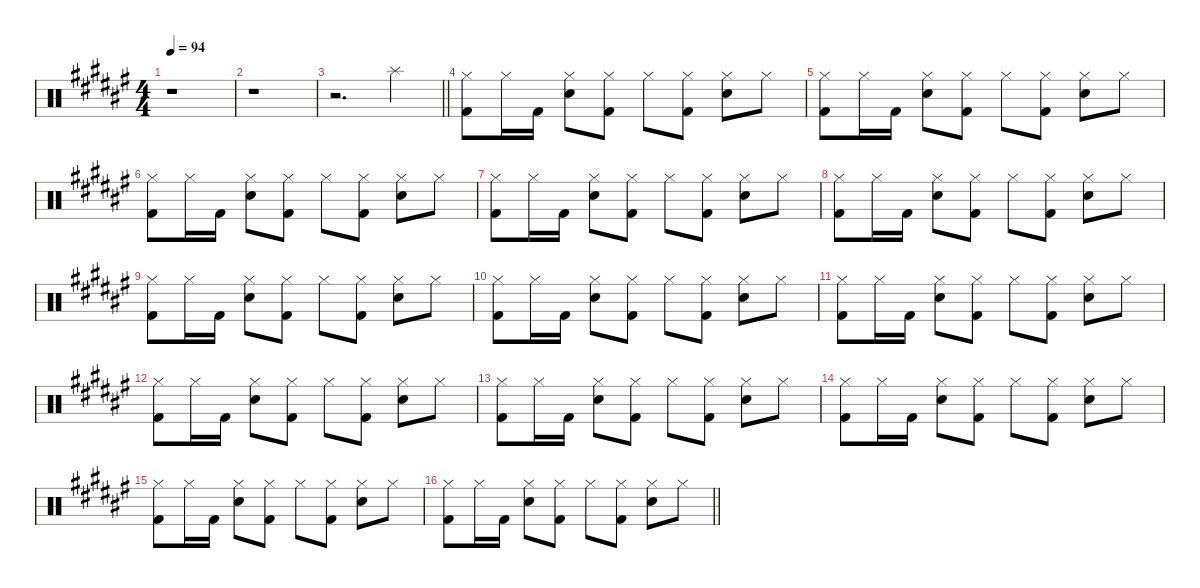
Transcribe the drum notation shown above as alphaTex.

\defaultSystemsLayout 4
\hideDynamics
\bracketExtendMode nobrackets
\singleTrackTrackNamePolicy hidden
\multiTrackTrackNamePolicy hidden
\otherSystemsTrackNameOrientation horizontal
\track ("Mike Joyce" "drm.") {instrument percussion}
\staff {score}
\articulation defaults
\ts (4 4)
\beaming (8 2 2 2 2)
\tempo 94
\clef neutral
\ks f#
r.1{dy p beam Down} |
r.1{beam Down} |
\barLineRight lightlight
r.2{d beam Down} "Splash (hit)"{acc forcenatural}.4{beam Down} |
("Hi-Hat (closed)"{acc forcenatural} "Kick (hit) 2"{acc forcenatural}).8{dy f beam Down} "Hi-Hat (closed)"{acc forcenatural}.16{beam Down} "Kick (hit) 2"{acc forcenatural}.16{beam Down} ("Hi-Hat (closed)"{acc forcenatural} "Snare (hit) 2"{acc forcenatural}).8{beam Down} ("Hi-Hat (closed)"{acc forcenatural} "Kick (hit) 2"{acc forcenatural}).8{beam Down} "Hi-Hat (closed)"{acc forcenatural}.8{beam Down} ("Hi-Hat (closed)"{acc forcenatural} "Kick (hit) 2"{acc forcenatural}).8{beam Down} ("Hi-Hat (closed)"{acc forcenatural} "Snare (hit) 2"{acc forcenatural}).8{beam Down} "Hi-Hat (closed)"{acc forcenatural}.8{beam Down} |
("Hi-Hat (closed)"{acc forcenatural} "Kick (hit) 2"{acc forcenatural}).8{beam Down} "Hi-Hat (closed)"{acc forcenatural}.16{beam Down} "Kick (hit) 2"{acc forcenatural}.16{beam Down} ("Hi-Hat (closed)"{acc forcenatural} "Snare (hit) 2"{acc forcenatural}).8{beam Down} ("Hi-Hat (closed)"{acc forcenatural} "Kick (hit) 2"{acc forcenatural}).8{beam Down} "Hi-Hat (closed)"{acc forcenatural}.8{beam Down} ("Hi-Hat (closed)"{acc forcenatural} "Kick (hit) 2"{acc forcenatural}).8{beam Down} ("Hi-Hat (closed)"{acc forcenatural} "Snare (hit) 2"{acc forcenatural}).8{beam Down} "Hi-Hat (closed)"{acc forcenatural}.8{beam Down} |
("Hi-Hat (closed)"{acc forcenatural} "Kick (hit) 2"{acc forcenatural}).8{beam Down} "Hi-Hat (closed)"{acc forcenatural}.16{beam Down} "Kick (hit) 2"{acc forcenatural}.16{beam Down} ("Hi-Hat (closed)"{acc forcenatural} "Snare (hit) 2"{acc forcenatural}).8{beam Down} ("Hi-Hat (closed)"{acc forcenatural} "Kick (hit) 2"{acc forcenatural}).8{beam Down} "Hi-Hat (closed)"{acc forcenatural}.8{beam Down} ("Hi-Hat (closed)"{acc forcenatural} "Kick (hit) 2"{acc forcenatural}).8{beam Down} ("Hi-Hat (closed)"{acc forcenatural} "Snare (hit) 2"{acc forcenatural}).8{beam Down} "Hi-Hat (closed)"{acc forcenatural}.8{beam Down} |
("Hi-Hat (closed)"{acc forcenatural} "Kick (hit) 2"{acc forcenatural}).8{beam Down} "Hi-Hat (closed)"{acc forcenatural}.16{beam Down} "Kick (hit) 2"{acc forcenatural}.16{beam Down} ("Hi-Hat (closed)"{acc forcenatural} "Snare (hit) 2"{acc forcenatural}).8{beam Down} ("Hi-Hat (closed)"{acc forcenatural} "Kick (hit) 2"{acc forcenatural}).8{beam Down} "Hi-Hat (closed)"{acc forcenatural}.8{beam Down} ("Hi-Hat (closed)"{acc forcenatural} "Kick (hit) 2"{acc forcenatural}).8{beam Down} ("Hi-Hat (closed)"{acc forcenatural} "Snare (hit) 2"{acc forcenatural}).8{beam Down} "Hi-Hat (closed)"{acc forcenatural}.8{beam Down} |
("Hi-Hat (closed)"{acc forcenatural} "Kick (hit) 2"{acc forcenatural}).8{beam Down} "Hi-Hat (closed)"{acc forcenatural}.16{beam Down} "Kick (hit) 2"{acc forcenatural}.16{beam Down} ("Hi-Hat (closed)"{acc forcenatural} "Snare (hit) 2"{acc forcenatural}).8{beam Down} ("Hi-Hat (closed)"{acc forcenatural} "Kick (hit) 2"{acc forcenatural}).8{beam Down} "Hi-Hat (closed)"{acc forcenatural}.8{beam Down} ("Hi-Hat (closed)"{acc forcenatural} "Kick (hit) 2"{acc forcenatural}).8{beam Down} ("Hi-Hat (closed)"{acc forcenatural} "Snare (hit) 2"{acc forcenatural}).8{beam Down} "Hi-Hat (closed)"{acc forcenatural}.8{beam Down} |
("Hi-Hat (closed)"{acc forcenatural} "Kick (hit) 2"{acc forcenatural}).8{beam Down} "Hi-Hat (closed)"{acc forcenatural}.16{beam Down} "Kick (hit) 2"{acc forcenatural}.16{beam Down} ("Hi-Hat (closed)"{acc forcenatural} "Snare (hit) 2"{acc forcenatural}).8{beam Down} ("Hi-Hat (closed)"{acc forcenatural} "Kick (hit) 2"{acc forcenatural}).8{beam Down} "Hi-Hat (closed)"{acc forcenatural}.8{beam Down} ("Hi-Hat (closed)"{acc forcenatural} "Kick (hit) 2"{acc forcenatural}).8{beam Down} ("Hi-Hat (closed)"{acc forcenatural} "Snare (hit) 2"{acc forcenatural}).8{beam Down} "Hi-Hat (closed)"{acc forcenatural}.8{beam Down} |
("Hi-Hat (closed)"{acc forcenatural} "Kick (hit) 2"{acc forcenatural}).8{beam Down} "Hi-Hat (closed)"{acc forcenatural}.16{beam Down} "Kick (hit) 2"{acc forcenatural}.16{beam Down} ("Hi-Hat (closed)"{acc forcenatural} "Snare (hit) 2"{acc forcenatural}).8{beam Down} ("Hi-Hat (closed)"{acc forcenatural} "Kick (hit) 2"{acc forcenatural}).8{beam Down} "Hi-Hat (closed)"{acc forcenatural}.8{beam Down} ("Hi-Hat (closed)"{acc forcenatural} "Kick (hit) 2"{acc forcenatural}).8{beam Down} ("Hi-Hat (closed)"{acc forcenatural} "Snare (hit) 2"{acc forcenatural}).8{beam Down} "Hi-Hat (closed)"{acc forcenatural}.8{beam Down} |
("Hi-Hat (closed)"{acc forcenatural} "Kick (hit) 2"{acc forcenatural}).8{beam Down} "Hi-Hat (closed)"{acc forcenatural}.16{beam Down} "Kick (hit) 2"{acc forcenatural}.16{beam Down} ("Hi-Hat (closed)"{acc forcenatural} "Snare (hit) 2"{acc forcenatural}).8{beam Down} ("Hi-Hat (closed)"{acc forcenatural} "Kick (hit) 2"{acc forcenatural}).8{beam Down} "Hi-Hat (closed)"{acc forcenatural}.8{beam Down} ("Hi-Hat (closed)"{acc forcenatural} "Kick (hit) 2"{acc forcenatural}).8{beam Down} ("Hi-Hat (closed)"{acc forcenatural} "Snare (hit) 2"{acc forcenatural}).8{beam Down} "Hi-Hat (closed)"{acc forcenatural}.8{beam Down} |
("Hi-Hat (closed)"{acc forcenatural} "Kick (hit) 2"{acc forcenatural}).8{beam Down} "Hi-Hat (closed)"{acc forcenatural}.16{beam Down} "Kick (hit) 2"{acc forcenatural}.16{beam Down} ("Hi-Hat (closed)"{acc forcenatural} "Snare (hit) 2"{acc forcenatural}).8{beam Down} ("Hi-Hat (closed)"{acc forcenatural} "Kick (hit) 2"{acc forcenatural}).8{beam Down} "Hi-Hat (closed)"{acc forcenatural}.8{beam Down} ("Hi-Hat (closed)"{acc forcenatural} "Kick (hit) 2"{acc forcenatural}).8{beam Down} ("Hi-Hat (closed)"{acc forcenatural} "Snare (hit) 2"{acc forcenatural}).8{beam Down} "Hi-Hat (closed)"{acc forcenatural}.8{beam Down} |
("Hi-Hat (closed)"{acc forcenatural} "Kick (hit) 2"{acc forcenatural}).8{beam Down} "Hi-Hat (closed)"{acc forcenatural}.16{beam Down} "Kick (hit) 2"{acc forcenatural}.16{beam Down} ("Hi-Hat (closed)"{acc forcenatural} "Snare (hit) 2"{acc forcenatural}).8{beam Down} ("Hi-Hat (closed)"{acc forcenatural} "Kick (hit) 2"{acc forcenatural}).8{beam Down} "Hi-Hat (closed)"{acc forcenatural}.8{beam Down} ("Hi-Hat (closed)"{acc forcenatural} "Kick (hit) 2"{acc forcenatural}).8{beam Down} ("Hi-Hat (closed)"{acc forcenatural} "Snare (hit) 2"{acc forcenatural}).8{beam Down} "Hi-Hat (closed)"{acc forcenatural}.8{beam Down} |
("Hi-Hat (closed)"{acc forcenatural} "Kick (hit) 2"{acc forcenatural}).8{beam Down} "Hi-Hat (closed)"{acc forcenatural}.16{beam Down} "Kick (hit) 2"{acc forcenatural}.16{beam Down} ("Hi-Hat (closed)"{acc forcenatural} "Snare (hit) 2"{acc forcenatural}).8{beam Down} ("Hi-Hat (closed)"{acc forcenatural} "Kick (hit) 2"{acc forcenatural}).8{beam Down} "Hi-Hat (closed)"{acc forcenatural}.8{beam Down} ("Hi-Hat (closed)"{acc forcenatural} "Kick (hit) 2"{acc forcenatural}).8{beam Down} ("Hi-Hat (closed)"{acc forcenatural} "Snare (hit) 2"{acc forcenatural}).8{beam Down} "Hi-Hat (closed)"{acc forcenatural}.8{beam Down} |
("Hi-Hat (closed)"{acc forcenatural} "Kick (hit) 2"{acc forcenatural}).8{beam Down} "Hi-Hat (closed)"{acc forcenatural}.16{beam Down} "Kick (hit) 2"{acc forcenatural}.16{beam Down} ("Hi-Hat (closed)"{acc forcenatural} "Snare (hit) 2"{acc forcenatural}).8{beam Down} ("Hi-Hat (closed)"{acc forcenatural} "Kick (hit) 2"{acc forcenatural}).8{beam Down} "Hi-Hat (closed)"{acc forcenatural}.8{beam Down} ("Hi-Hat (closed)"{acc forcenatural} "Kick (hit) 2"{acc forcenatural}).8{beam Down} ("Hi-Hat (closed)"{acc forcenatural} "Snare (hit) 2"{acc forcenatural}).8{beam Down} "Hi-Hat (closed)"{acc forcenatural}.8{beam Down} |
\barLineRight lightlight
("Hi-Hat (closed)"{acc forcenatural} "Kick (hit) 2"{acc forcenatural}).8{beam Down} "Hi-Hat (closed)"{acc forcenatural}.16{beam Down} "Kick (hit) 2"{acc forcenatural}.16{beam Down} ("Hi-Hat (closed)"{acc forcenatural} "Snare (hit) 2"{acc forcenatural}).8{beam Down} ("Hi-Hat (closed)"{acc forcenatural} "Kick (hit) 2"{acc forcenatural}).8{beam Down} "Hi-Hat (closed)"{acc forcenatural}.8{beam Down} ("Hi-Hat (closed)"{acc forcenatural} "Kick (hit) 2"{acc forcenatural}).8{beam Down} ("Hi-Hat (closed)"{acc forcenatural} "Snare (hit) 2"{acc forcenatural}).8{beam Down} "Hi-Hat (closed)"{acc forcenatural}.8{beam Down}
